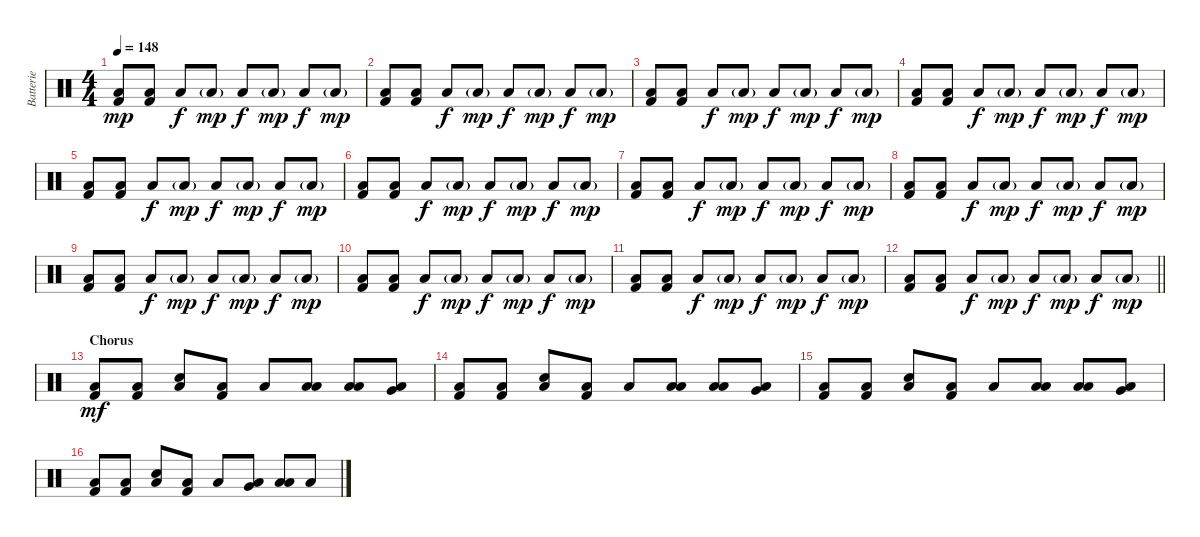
\track ("Batterie" "Batterie") {instrument percussion}
\staff {score}
\articulation defaults
\ts (4 4)
\tempo 148
\clef neutral
\ks c
("Low Floor Tom (hit)" "Kick (hit) 2").8{dy mp} ("Low Floor Tom (hit)" "Kick (hit) 2").8 "Low Floor Tom (hit)".8{dy f} "Low Floor Tom (hit)"{g}.8{dy mp} "Low Floor Tom (hit)".8{dy f} "Low Floor Tom (hit)"{g}.8{dy mp} "Low Floor Tom (hit)".8{dy f} "Low Floor Tom (hit)"{g}.8{dy mp} |
("Low Floor Tom (hit)" "Kick (hit) 2").8 ("Low Floor Tom (hit)" "Kick (hit) 2").8 "Low Floor Tom (hit)".8{dy f} "Low Floor Tom (hit)"{g}.8{dy mp} "Low Floor Tom (hit)".8{dy f} "Low Floor Tom (hit)"{g}.8{dy mp} "Low Floor Tom (hit)".8{dy f} "Low Floor Tom (hit)"{g}.8{dy mp} |
("Low Floor Tom (hit)" "Kick (hit) 2").8 ("Low Floor Tom (hit)" "Kick (hit) 2").8 "Low Floor Tom (hit)".8{dy f} "Low Floor Tom (hit)"{g}.8{dy mp} "Low Floor Tom (hit)".8{dy f} "Low Floor Tom (hit)"{g}.8{dy mp} "Low Floor Tom (hit)".8{dy f} "Low Floor Tom (hit)"{g}.8{dy mp} |
("Low Floor Tom (hit)" "Kick (hit) 2").8 ("Low Floor Tom (hit)" "Kick (hit) 2").8 "Low Floor Tom (hit)".8{dy f} "Low Floor Tom (hit)"{g}.8{dy mp} "Low Floor Tom (hit)".8{dy f} "Low Floor Tom (hit)"{g}.8{dy mp} "Low Floor Tom (hit)".8{dy f} "Low Floor Tom (hit)"{g}.8{dy mp} |
("Low Floor Tom (hit)" "Kick (hit) 2").8 ("Low Floor Tom (hit)" "Kick (hit) 2").8 "Low Floor Tom (hit)".8{dy f} "Low Floor Tom (hit)"{g}.8{dy mp} "Low Floor Tom (hit)".8{dy f} "Low Floor Tom (hit)"{g}.8{dy mp} "Low Floor Tom (hit)".8{dy f} "Low Floor Tom (hit)"{g}.8{dy mp} |
("Low Floor Tom (hit)" "Kick (hit) 2").8 ("Low Floor Tom (hit)" "Kick (hit) 2").8 "Low Floor Tom (hit)".8{dy f} "Low Floor Tom (hit)"{g}.8{dy mp} "Low Floor Tom (hit)".8{dy f} "Low Floor Tom (hit)"{g}.8{dy mp} "Low Floor Tom (hit)".8{dy f} "Low Floor Tom (hit)"{g}.8{dy mp} |
("Low Floor Tom (hit)" "Kick (hit) 2").8 ("Low Floor Tom (hit)" "Kick (hit) 2").8 "Low Floor Tom (hit)".8{dy f} "Low Floor Tom (hit)"{g}.8{dy mp} "Low Floor Tom (hit)".8{dy f} "Low Floor Tom (hit)"{g}.8{dy mp} "Low Floor Tom (hit)".8{dy f} "Low Floor Tom (hit)"{g}.8{dy mp} |
("Low Floor Tom (hit)" "Kick (hit) 2").8 ("Low Floor Tom (hit)" "Kick (hit) 2").8 "Low Floor Tom (hit)".8{dy f} "Low Floor Tom (hit)"{g}.8{dy mp} "Low Floor Tom (hit)".8{dy f} "Low Floor Tom (hit)"{g}.8{dy mp} "Low Floor Tom (hit)".8{dy f} "Low Floor Tom (hit)"{g}.8{dy mp} |
("Low Floor Tom (hit)" "Kick (hit) 2").8 ("Low Floor Tom (hit)" "Kick (hit) 2").8 "Low Floor Tom (hit)".8{dy f} "Low Floor Tom (hit)"{g}.8{dy mp} "Low Floor Tom (hit)".8{dy f} "Low Floor Tom (hit)"{g}.8{dy mp} "Low Floor Tom (hit)".8{dy f} "Low Floor Tom (hit)"{g}.8{dy mp} |
("Low Floor Tom (hit)" "Kick (hit) 2").8 ("Low Floor Tom (hit)" "Kick (hit) 2").8 "Low Floor Tom (hit)".8{dy f} "Low Floor Tom (hit)"{g}.8{dy mp} "Low Floor Tom (hit)".8{dy f} "Low Floor Tom (hit)"{g}.8{dy mp} "Low Floor Tom (hit)".8{dy f} "Low Floor Tom (hit)"{g}.8{dy mp} |
("Low Floor Tom (hit)" "Kick (hit) 2").8 ("Low Floor Tom (hit)" "Kick (hit) 2").8 "Low Floor Tom (hit)".8{dy f} "Low Floor Tom (hit)"{g}.8{dy mp} "Low Floor Tom (hit)".8{dy f} "Low Floor Tom (hit)"{g}.8{dy mp} "Low Floor Tom (hit)".8{dy f} "Low Floor Tom (hit)"{g}.8{dy mp} |
\barLineRight lightlight
("Low Floor Tom (hit)" "Kick (hit) 2").8 ("Low Floor Tom (hit)" "Kick (hit) 2").8 "Low Floor Tom (hit)".8{dy f} "Low Floor Tom (hit)"{g}.8{dy mp} "Low Floor Tom (hit)".8{dy f} "Low Floor Tom (hit)"{g}.8{dy mp} "Low Floor Tom (hit)".8{dy f} "Low Floor Tom (hit)"{g}.8{dy mp} |
\section ("" "Chorus")
("Low Floor Tom (hit)" "Kick (hit) 2").8{dy mf} ("Low Floor Tom (hit)" "Kick (hit) 2").8 ("Low Floor Tom (hit)" "Snare (hit) 2").8 ("Low Floor Tom (hit)" "Kick (hit) 2").8 "Low Floor Tom (hit)".8 ("Low Floor Tom (hit)" "Low Tom (hit)").8 ("Low Floor Tom (hit)" "Low Floor Tom (hit)").8 ("Low Floor Tom (hit)" "Very Low Tom (hit)").8 |
("Low Floor Tom (hit)" "Kick (hit) 2").8 ("Low Floor Tom (hit)" "Kick (hit) 2").8 ("Low Floor Tom (hit)" "Snare (hit) 2").8 ("Low Floor Tom (hit)" "Kick (hit) 2").8 "Low Floor Tom (hit)".8 ("Low Floor Tom (hit)" "Low Tom (hit)").8 ("Low Floor Tom (hit)" "Low Floor Tom (hit)").8 ("Low Floor Tom (hit)" "Very Low Tom (hit)").8 |
("Low Floor Tom (hit)" "Kick (hit) 2").8 ("Low Floor Tom (hit)" "Kick (hit) 2").8 ("Low Floor Tom (hit)" "Snare (hit) 2").8 ("Low Floor Tom (hit)" "Kick (hit) 2").8 "Low Floor Tom (hit)".8 ("Low Floor Tom (hit)" "Low Tom (hit)").8 ("Low Floor Tom (hit)" "Low Floor Tom (hit)").8 ("Low Floor Tom (hit)" "Very Low Tom (hit)").8 |
("Low Floor Tom (hit)" "Kick (hit) 2").8 ("Low Floor Tom (hit)" "Kick (hit) 2").8 ("Low Floor Tom (hit)" "Snare (hit) 2").8 ("Low Floor Tom (hit)" "Kick (hit) 2").8 "Low Floor Tom (hit)".8 ("Low Floor Tom (hit)" "Very Low Tom (hit)").8 ("Low Floor Tom (hit)" "Low Floor Tom (hit)").8 "Low Floor Tom (hit)".8
